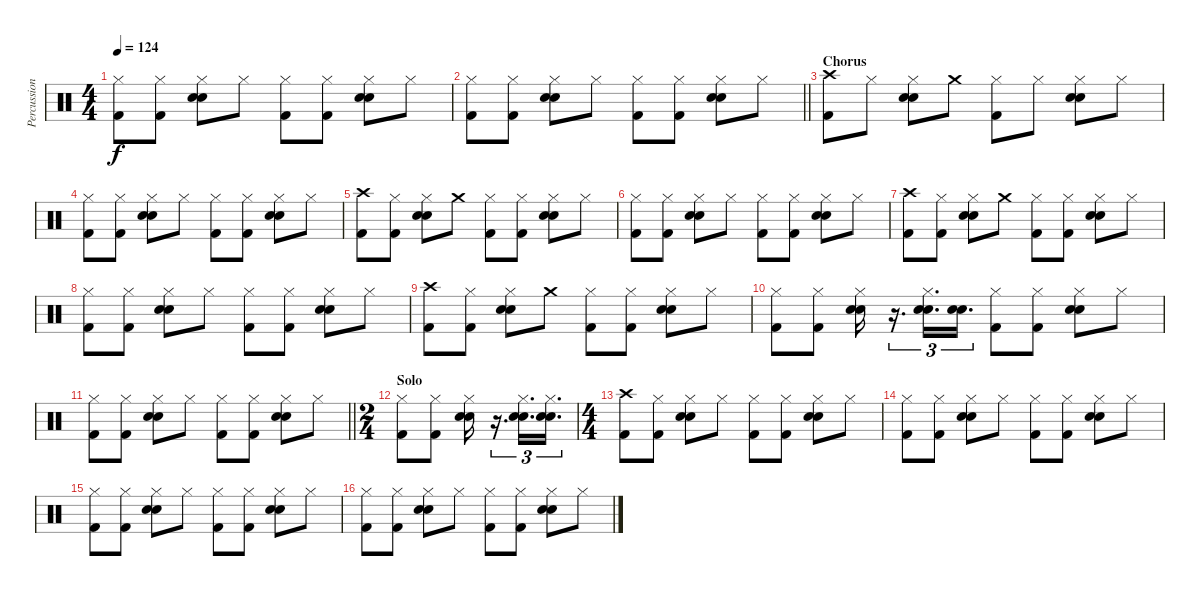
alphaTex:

\track ("Percussion" "Percussion") {instrument percussion}
\staff {score}
\articulation defaults
\ts (4 4)
\tempo 124
\clef neutral
\ks c
("Hi-Hat (closed)" "Kick (hit) 2").8{dy f} ("Hi-Hat (closed)" "Kick (hit) 2").8 ("Hi-Hat (closed)" "Snare (hit) 2" "Electric Snare (hit)").8 "Hi-Hat (closed)".8 ("Hi-Hat (closed)" "Kick (hit) 2").8 ("Hi-Hat (closed)" "Kick (hit) 2").8 ("Hi-Hat (closed)" "Snare (hit) 2" "Electric Snare (hit)").8 "Hi-Hat (closed)".8 |
\barLineRight lightlight
("Hi-Hat (closed)" "Kick (hit) 2").8 ("Hi-Hat (closed)" "Kick (hit) 2").8 ("Hi-Hat (closed)" "Snare (hit) 2" "Electric Snare (hit)").8 "Hi-Hat (closed)".8 ("Hi-Hat (closed)" "Kick (hit) 2").8 ("Hi-Hat (closed)" "Kick (hit) 2").8 ("Hi-Hat (closed)" "Snare (hit) 2" "Electric Snare (hit)").8 "Hi-Hat (closed)".8 |
\section ("" "Chorus")
("Crash high (hit)" "Kick (hit) 2").8 "Hi-Hat (closed)".8 ("Hi-Hat (closed)" "Snare (hit) 2" "Electric Snare (hit)").8 "Crash medium (hit)".8 ("Hi-Hat (closed)" "Kick (hit) 2").8 "Hi-Hat (closed)".8 ("Hi-Hat (closed)" "Snare (hit) 2" "Electric Snare (hit)").8 "Hi-Hat (closed)".8 |
("Hi-Hat (closed)" "Kick (hit) 2").8 ("Hi-Hat (closed)" "Kick (hit) 2").8 ("Hi-Hat (closed)" "Snare (hit) 2" "Electric Snare (hit)").8 "Hi-Hat (closed)".8 ("Hi-Hat (closed)" "Kick (hit) 2").8 ("Hi-Hat (closed)" "Kick (hit) 2").8 ("Hi-Hat (closed)" "Snare (hit) 2" "Electric Snare (hit)").8 "Hi-Hat (closed)".8 |
("Crash high (hit)" "Kick (hit) 2").8 ("Hi-Hat (closed)" "Kick (hit) 2").8 ("Hi-Hat (closed)" "Snare (hit) 2" "Electric Snare (hit)").8 "Crash medium (hit)".8 ("Hi-Hat (closed)" "Kick (hit) 2").8 ("Hi-Hat (closed)" "Kick (hit) 2").8 ("Hi-Hat (closed)" "Snare (hit) 2" "Electric Snare (hit)").8 "Hi-Hat (closed)".8 |
("Hi-Hat (closed)" "Kick (hit) 2").8 ("Hi-Hat (closed)" "Kick (hit) 2").8 ("Hi-Hat (closed)" "Snare (hit) 2" "Electric Snare (hit)").8 "Hi-Hat (closed)".8 ("Hi-Hat (closed)" "Kick (hit) 2").8 ("Hi-Hat (closed)" "Kick (hit) 2").8 ("Hi-Hat (closed)" "Snare (hit) 2" "Electric Snare (hit)").8 "Hi-Hat (closed)".8 |
("Crash high (hit)" "Kick (hit) 2").8 ("Hi-Hat (closed)" "Kick (hit) 2").8 ("Hi-Hat (closed)" "Snare (hit) 2" "Electric Snare (hit)").8 "Crash medium (hit)".8 ("Hi-Hat (closed)" "Kick (hit) 2").8 ("Hi-Hat (closed)" "Kick (hit) 2").8 ("Hi-Hat (closed)" "Snare (hit) 2" "Electric Snare (hit)").8 "Hi-Hat (closed)".8 |
("Hi-Hat (closed)" "Kick (hit) 2").8 ("Hi-Hat (closed)" "Kick (hit) 2").8 ("Hi-Hat (closed)" "Snare (hit) 2" "Electric Snare (hit)").8 "Hi-Hat (closed)".8 ("Hi-Hat (closed)" "Kick (hit) 2").8 ("Hi-Hat (closed)" "Kick (hit) 2").8 ("Hi-Hat (closed)" "Snare (hit) 2" "Electric Snare (hit)").8 "Hi-Hat (closed)".8 |
("Crash high (hit)" "Kick (hit) 2").8 ("Hi-Hat (closed)" "Kick (hit) 2").8 ("Hi-Hat (closed)" "Snare (hit) 2" "Electric Snare (hit)").8 "Crash medium (hit)".8 ("Hi-Hat (closed)" "Kick (hit) 2").8 ("Hi-Hat (closed)" "Kick (hit) 2").8 ("Hi-Hat (closed)" "Snare (hit) 2" "Electric Snare (hit)").8 "Hi-Hat (closed)".8 |
("Hi-Hat (closed)" "Kick (hit) 2").8 ("Hi-Hat (closed)" "Kick (hit) 2").8 ("Hi-Hat (closed)" "Snare (hit) 2" "Electric Snare (hit)").16 r.16{d tu (3 2)} ("Hi-Hat (closed)" "Snare (hit) 2" "Electric Snare (hit)").16{d tu (3 2)} ("Snare (hit) 2" "Electric Snare (hit)").16{d tu (3 2)} ("Hi-Hat (closed)" "Kick (hit) 2").8 ("Hi-Hat (closed)" "Kick (hit) 2").8 ("Hi-Hat (closed)" "Snare (hit) 2" "Electric Snare (hit)").8 "Hi-Hat (closed)".8 |
\barLineRight lightlight
("Hi-Hat (closed)" "Kick (hit) 2").8 ("Hi-Hat (closed)" "Kick (hit) 2").8 ("Hi-Hat (closed)" "Snare (hit) 2" "Electric Snare (hit)").8 "Hi-Hat (closed)".8 ("Hi-Hat (closed)" "Kick (hit) 2").8 ("Hi-Hat (closed)" "Kick (hit) 2").8 ("Hi-Hat (closed)" "Snare (hit) 2" "Electric Snare (hit)").8 "Hi-Hat (closed)".8 |
\ts (2 4)
\section ("" "Solo")
("Hi-Hat (closed)" "Kick (hit) 2").8 ("Hi-Hat (closed)" "Kick (hit) 2").8 ("Hi-Hat (closed)" "Snare (hit) 2" "Electric Snare (hit)").16 r.16{d tu (3 2)} ("Hi-Hat (closed)" "Snare (hit) 2" "Electric Snare (hit)").16{d tu (3 2)} ("Hi-Hat (closed)" "Snare (hit) 2" "Electric Snare (hit)").16{d tu (3 2)} |
\ts (4 4)
("Crash high (hit)" "Kick (hit) 2").8 ("Hi-Hat (closed)" "Kick (hit) 2").8 ("Hi-Hat (closed)" "Snare (hit) 2" "Electric Snare (hit)").8 "Hi-Hat (closed)".8 ("Hi-Hat (closed)" "Kick (hit) 2").8 ("Hi-Hat (closed)" "Kick (hit) 2").8 ("Hi-Hat (closed)" "Snare (hit) 2" "Electric Snare (hit)").8 "Hi-Hat (closed)".8 |
("Hi-Hat (closed)" "Kick (hit) 2").8 ("Hi-Hat (closed)" "Kick (hit) 2").8 ("Hi-Hat (closed)" "Snare (hit) 2" "Electric Snare (hit)").8 "Hi-Hat (closed)".8 ("Hi-Hat (closed)" "Kick (hit) 2").8 ("Hi-Hat (closed)" "Kick (hit) 2").8 ("Hi-Hat (closed)" "Snare (hit) 2" "Electric Snare (hit)").8 "Hi-Hat (closed)".8 |
("Hi-Hat (closed)" "Kick (hit) 2").8 ("Hi-Hat (closed)" "Kick (hit) 2").8 ("Hi-Hat (closed)" "Snare (hit) 2" "Electric Snare (hit)").8 "Hi-Hat (closed)".8 ("Hi-Hat (closed)" "Kick (hit) 2").8 ("Hi-Hat (closed)" "Kick (hit) 2").8 ("Hi-Hat (closed)" "Snare (hit) 2" "Electric Snare (hit)").8 "Hi-Hat (closed)".8 |
("Hi-Hat (closed)" "Kick (hit) 2").8 ("Hi-Hat (closed)" "Kick (hit) 2").8 ("Hi-Hat (closed)" "Snare (hit) 2" "Electric Snare (hit)").8 "Hi-Hat (closed)".8 ("Hi-Hat (closed)" "Kick (hit) 2").8 ("Hi-Hat (closed)" "Kick (hit) 2").8 ("Hi-Hat (closed)" "Snare (hit) 2" "Electric Snare (hit)").8 "Hi-Hat (closed)".8
